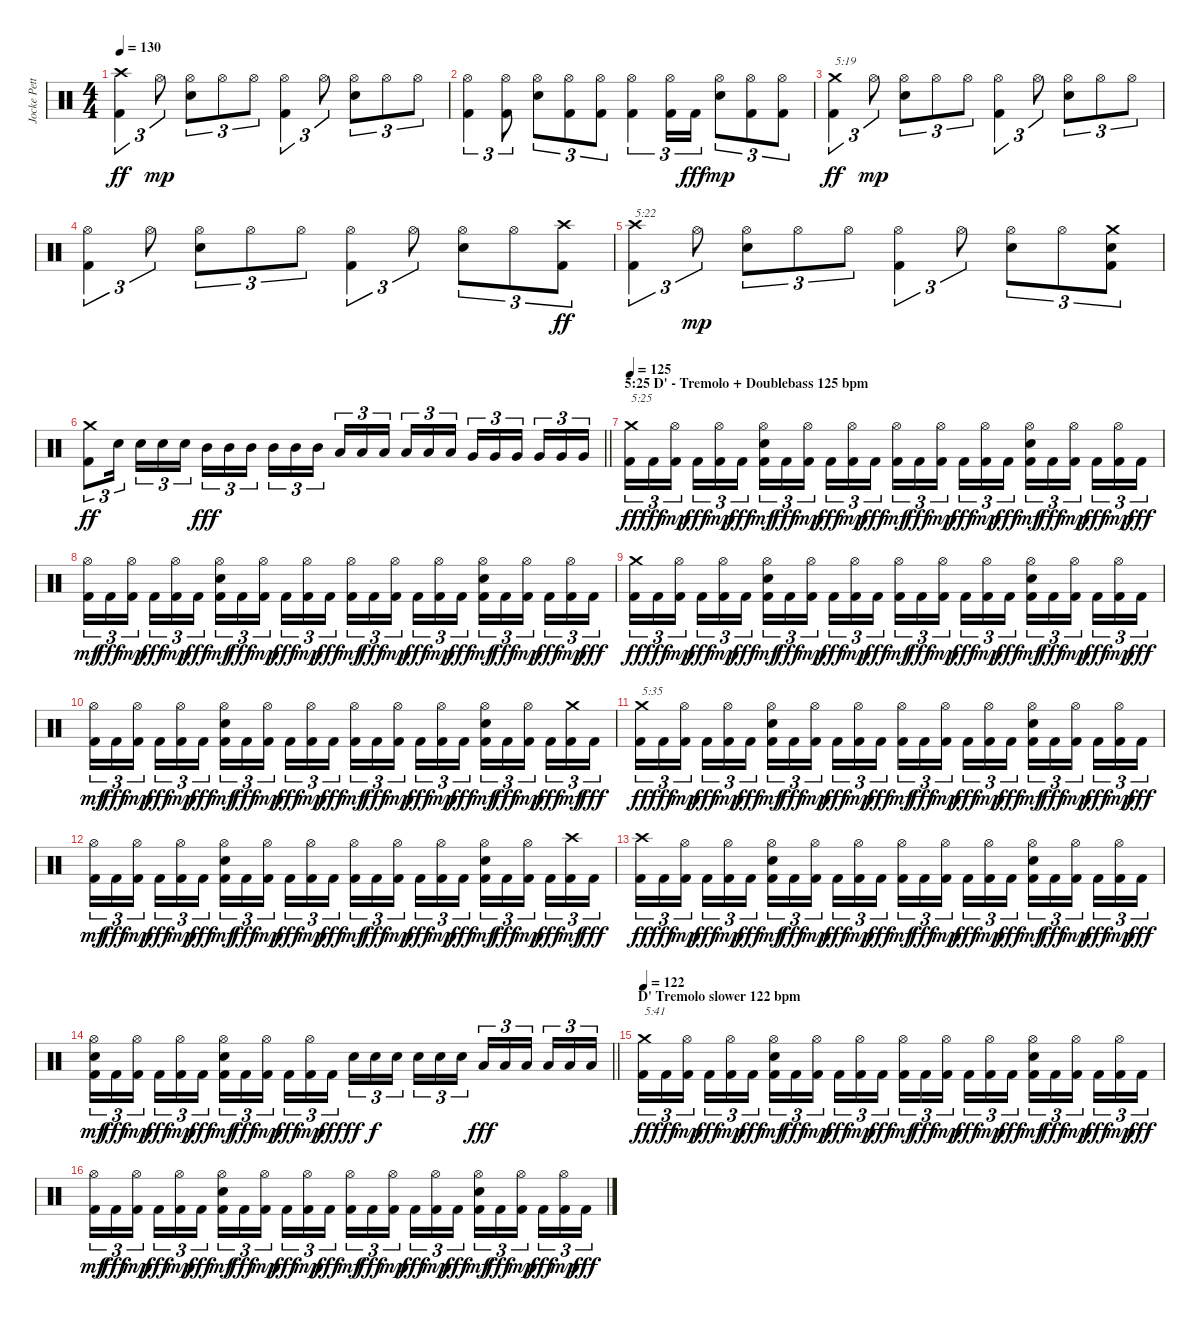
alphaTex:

\track ("Jocke Pettersson" "Jocke Pett") {instrument percussion}
\staff {score}
\articulation defaults
\ts (4 4)
\tempo 130
\clef neutral
\ks c
("Kick (hit) 2" "Crash high (hit)").4{tu (3 2) dy ff} "Hi-Hat (open)".8{tu (3 2) dy mp} ("Electric Snare (hit)" "Hi-Hat (open)").8{tu (3 2)} "Hi-Hat (open)".8{tu (3 2)} "Hi-Hat (open)".8{tu (3 2)} ("Kick (hit) 2" "Hi-Hat (open)").4{tu (3 2)} "Hi-Hat (open)".8{tu (3 2)} ("Electric Snare (hit)" "Hi-Hat (open)").8{tu (3 2)} "Hi-Hat (open)".8{tu (3 2)} "Hi-Hat (open)".8{tu (3 2)} |
("Kick (hit) 2" "Hi-Hat (open)").4{tu (3 2)} ("Kick (hit) 2" "Hi-Hat (open)").8{tu (3 2)} ("Electric Snare (hit)" "Hi-Hat (open)").8{tu (3 2)} ("Kick (hit) 2" "Hi-Hat (open)").8{tu (3 2)} ("Kick (hit) 2" "Hi-Hat (open)").8{tu (3 2)} ("Kick (hit) 2" "Hi-Hat (open)").4{tu (3 2)} ("Kick (hit) 2" "Hi-Hat (open)").16{tu (3 2)} "Kick (hit) 2".16{tu (3 2) dy fff} ("Electric Snare (hit)" "Hi-Hat (open)").8{tu (3 2) dy mp} ("Kick (hit) 2" "Hi-Hat (open)").8{tu (3 2)} ("Kick (hit) 2" "Hi-Hat (open)").8{tu (3 2)} |
("Kick (hit) 2" "Crash medium (hit)").4{tu (3 2) txt "5:19" dy ff} "Hi-Hat (open)".8{tu (3 2) dy mp} ("Electric Snare (hit)" "Hi-Hat (open)").8{tu (3 2)} "Hi-Hat (open)".8{tu (3 2)} "Hi-Hat (open)".8{tu (3 2)} ("Kick (hit) 2" "Hi-Hat (open)").4{tu (3 2)} "Hi-Hat (open)".8{tu (3 2)} ("Electric Snare (hit)" "Hi-Hat (open)").8{tu (3 2)} "Hi-Hat (open)".8{tu (3 2)} "Hi-Hat (open)".8{tu (3 2)} |
("Kick (hit) 2" "Hi-Hat (open)").4{tu (3 2)} "Hi-Hat (open)".8{tu (3 2)} ("Electric Snare (hit)" "Hi-Hat (open)").8{tu (3 2)} "Hi-Hat (open)".8{tu (3 2)} "Hi-Hat (open)".8{tu (3 2)} ("Kick (hit) 2" "Hi-Hat (open)").4{tu (3 2)} "Hi-Hat (open)".8{tu (3 2)} ("Electric Snare (hit)" "Hi-Hat (open)").8{tu (3 2)} "Hi-Hat (open)".8{tu (3 2)} ("Kick (hit) 2" "Crash high (hit)").8{tu (3 2) dy ff} |
("Kick (hit) 2" "Crash high (hit)").4{tu (3 2) txt "5:22"} "Hi-Hat (open)".8{tu (3 2) dy mp} ("Electric Snare (hit)" "Hi-Hat (open)").8{tu (3 2)} "Hi-Hat (open)".8{tu (3 2)} "Hi-Hat (open)".8{tu (3 2)} ("Kick (hit) 2" "Hi-Hat (open)").4{tu (3 2)} "Hi-Hat (open)".8{tu (3 2)} ("Electric Snare (hit)" "Hi-Hat (open)").8{tu (3 2)} "Hi-Hat (open)".8{tu (3 2)} ("Kick (hit) 2" "Electric Snare (hit)" "Crash medium (hit)").8{tu (3 2)} |
\barLineRight lightlight
("Kick (hit) 2" "Crash medium (hit)").8{tu (3 2) dy ff} "Electric Snare (hit)".16{tu (3 2) beam splitsecondary} "Electric Snare (hit)".16{tu (3 2)} "Electric Snare (hit)".16{tu (3 2)} "Electric Snare (hit)".16{tu (3 2)} "Mid Tom (hit)".16{tu (3 2) dy fff} "Mid Tom (hit)".16{tu (3 2)} "Mid Tom (hit)".16{tu (3 2) beam splitsecondary} "Mid Tom (hit)".16{tu (3 2)} "Mid Tom (hit)".16{tu (3 2)} "Mid Tom (hit)".16{tu (3 2)} "Low Tom (hit)".16{tu (3 2)} "Low Tom (hit)".16{tu (3 2)} "Low Tom (hit)".16{tu (3 2) beam splitsecondary} "Low Tom (hit)".16{tu (3 2)} "Low Tom (hit)".16{tu (3 2)} "Low Tom (hit)".16{tu (3 2)} "Very Low Tom (hit)".16{tu (3 2)} "Very Low Tom (hit)".16{tu (3 2)} "Very Low Tom (hit)".16{tu (3 2) beam splitsecondary} "Very Low Tom (hit)".16{tu (3 2)} "Very Low Tom (hit)".16{tu (3 2)} "Very Low Tom (hit)".16{tu (3 2)} |
\section ("" "5:25 D' - Tremolo + Doublebass 125 bpm")
\tempo 125
("Kick (hit) 2" "Crash medium (hit)").16{tu (3 2) txt "5:25" dy ff} "Kick (hit) 2".16{tu (3 2) dy fff} ("Kick (hit) 2" "Hi-Hat (open)").16{tu (3 2) dy mp beam splitsecondary} "Kick (hit) 2".16{tu (3 2) dy fff} ("Kick (hit) 2" "Hi-Hat (open)").16{tu (3 2) dy mp} "Kick (hit) 2".16{tu (3 2) dy fff} ("Kick (hit) 2" "Electric Snare (hit)" "Hi-Hat (open)").16{tu (3 2) dy mf} "Kick (hit) 2".16{tu (3 2) dy fff} ("Kick (hit) 2" "Hi-Hat (open)").16{tu (3 2) dy mp beam splitsecondary} "Kick (hit) 2".16{tu (3 2) dy fff} ("Kick (hit) 2" "Hi-Hat (open)").16{tu (3 2) dy mp} "Kick (hit) 2".16{tu (3 2) dy fff} ("Kick (hit) 2" "Hi-Hat (open)").16{tu (3 2) dy mf} "Kick (hit) 2".16{tu (3 2) dy fff} ("Kick (hit) 2" "Hi-Hat (open)").16{tu (3 2) dy mp beam splitsecondary} "Kick (hit) 2".16{tu (3 2) dy fff} ("Kick (hit) 2" "Hi-Hat (open)").16{tu (3 2) dy mp} "Kick (hit) 2".16{tu (3 2) dy fff} ("Kick (hit) 2" "Electric Snare (hit)" "Hi-Hat (open)").16{tu (3 2) dy mf} "Kick (hit) 2".16{tu (3 2) dy fff} ("Kick (hit) 2" "Hi-Hat (open)").16{tu (3 2) dy mp beam splitsecondary} "Kick (hit) 2".16{tu (3 2) dy fff} ("Kick (hit) 2" "Hi-Hat (open)").16{tu (3 2) dy mp} "Kick (hit) 2".16{tu (3 2) dy fff} |
("Kick (hit) 2" "Hi-Hat (open)").16{tu (3 2) dy mf} "Kick (hit) 2".16{tu (3 2) dy fff} ("Kick (hit) 2" "Hi-Hat (open)").16{tu (3 2) dy mp beam splitsecondary} "Kick (hit) 2".16{tu (3 2) dy fff} ("Kick (hit) 2" "Hi-Hat (open)").16{tu (3 2) dy mp} "Kick (hit) 2".16{tu (3 2) dy fff} ("Kick (hit) 2" "Electric Snare (hit)" "Hi-Hat (open)").16{tu (3 2) dy mf} "Kick (hit) 2".16{tu (3 2) dy fff} ("Kick (hit) 2" "Hi-Hat (open)").16{tu (3 2) dy mp beam splitsecondary} "Kick (hit) 2".16{tu (3 2) dy fff} ("Kick (hit) 2" "Hi-Hat (open)").16{tu (3 2) dy mp} "Kick (hit) 2".16{tu (3 2) dy fff} ("Kick (hit) 2" "Hi-Hat (open)").16{tu (3 2) dy mf} "Kick (hit) 2".16{tu (3 2) dy fff} ("Kick (hit) 2" "Hi-Hat (open)").16{tu (3 2) dy mp beam splitsecondary} "Kick (hit) 2".16{tu (3 2) dy fff} ("Kick (hit) 2" "Hi-Hat (open)").16{tu (3 2) dy mp} "Kick (hit) 2".16{tu (3 2) dy fff} ("Kick (hit) 2" "Electric Snare (hit)" "Hi-Hat (open)").16{tu (3 2) dy mf} "Kick (hit) 2".16{tu (3 2) dy fff} ("Kick (hit) 2" "Hi-Hat (open)").16{tu (3 2) dy mp beam splitsecondary} "Kick (hit) 2".16{tu (3 2) dy fff} ("Kick (hit) 2" "Hi-Hat (open)").16{tu (3 2) dy mp} "Kick (hit) 2".16{tu (3 2) dy fff} |
("Kick (hit) 2" "Crash medium (hit)").16{tu (3 2) dy ff} "Kick (hit) 2".16{tu (3 2) dy fff} ("Kick (hit) 2" "Hi-Hat (open)").16{tu (3 2) dy mp beam splitsecondary} "Kick (hit) 2".16{tu (3 2) dy fff} ("Kick (hit) 2" "Hi-Hat (open)").16{tu (3 2) dy mp} "Kick (hit) 2".16{tu (3 2) dy fff} ("Kick (hit) 2" "Electric Snare (hit)" "Hi-Hat (open)").16{tu (3 2) dy mf} "Kick (hit) 2".16{tu (3 2) dy fff} ("Kick (hit) 2" "Hi-Hat (open)").16{tu (3 2) dy mp beam splitsecondary} "Kick (hit) 2".16{tu (3 2) dy fff} ("Kick (hit) 2" "Hi-Hat (open)").16{tu (3 2) dy mp} "Kick (hit) 2".16{tu (3 2) dy fff} ("Kick (hit) 2" "Hi-Hat (open)").16{tu (3 2) dy mf} "Kick (hit) 2".16{tu (3 2) dy fff} ("Kick (hit) 2" "Hi-Hat (open)").16{tu (3 2) dy mp beam splitsecondary} "Kick (hit) 2".16{tu (3 2) dy fff} ("Kick (hit) 2" "Hi-Hat (open)").16{tu (3 2) dy mp} "Kick (hit) 2".16{tu (3 2) dy fff} ("Kick (hit) 2" "Electric Snare (hit)" "Hi-Hat (open)").16{tu (3 2) dy mf} "Kick (hit) 2".16{tu (3 2) dy fff} ("Kick (hit) 2" "Hi-Hat (open)").16{tu (3 2) dy mp beam splitsecondary} "Kick (hit) 2".16{tu (3 2) dy fff} ("Kick (hit) 2" "Hi-Hat (open)").16{tu (3 2) dy mp} "Kick (hit) 2".16{tu (3 2) dy fff} |
("Kick (hit) 2" "Hi-Hat (open)").16{tu (3 2) dy mf} "Kick (hit) 2".16{tu (3 2) dy fff} ("Kick (hit) 2" "Hi-Hat (open)").16{tu (3 2) dy mp beam splitsecondary} "Kick (hit) 2".16{tu (3 2) dy fff} ("Kick (hit) 2" "Hi-Hat (open)").16{tu (3 2) dy mp} "Kick (hit) 2".16{tu (3 2) dy fff} ("Kick (hit) 2" "Electric Snare (hit)" "Hi-Hat (open)").16{tu (3 2) dy mf} "Kick (hit) 2".16{tu (3 2) dy fff} ("Kick (hit) 2" "Hi-Hat (open)").16{tu (3 2) dy mp beam splitsecondary} "Kick (hit) 2".16{tu (3 2) dy fff} ("Kick (hit) 2" "Hi-Hat (open)").16{tu (3 2) dy mp} "Kick (hit) 2".16{tu (3 2) dy fff} ("Kick (hit) 2" "Hi-Hat (open)").16{tu (3 2) dy mf} "Kick (hit) 2".16{tu (3 2) dy fff} ("Kick (hit) 2" "Hi-Hat (open)").16{tu (3 2) dy mp beam splitsecondary} "Kick (hit) 2".16{tu (3 2) dy fff} ("Kick (hit) 2" "Hi-Hat (open)").16{tu (3 2) dy mp} "Kick (hit) 2".16{tu (3 2) dy fff} ("Kick (hit) 2" "Electric Snare (hit)" "Hi-Hat (open)").16{tu (3 2) dy mf} "Kick (hit) 2".16{tu (3 2) dy fff} ("Kick (hit) 2" "Hi-Hat (open)").16{tu (3 2) dy mp beam splitsecondary} "Kick (hit) 2".16{tu (3 2) dy fff} ("Kick (hit) 2" "Crash medium (hit)").16{tu (3 2) dy mf} "Kick (hit) 2".16{tu (3 2) dy fff} |
("Kick (hit) 2" "Crash medium (hit)").16{tu (3 2) txt "5:35" dy ff} "Kick (hit) 2".16{tu (3 2) dy fff} ("Kick (hit) 2" "Hi-Hat (open)").16{tu (3 2) dy mp beam splitsecondary} "Kick (hit) 2".16{tu (3 2) dy fff} ("Kick (hit) 2" "Hi-Hat (open)").16{tu (3 2) dy mp} "Kick (hit) 2".16{tu (3 2) dy fff} ("Kick (hit) 2" "Electric Snare (hit)" "Hi-Hat (open)").16{tu (3 2) dy mf} "Kick (hit) 2".16{tu (3 2) dy fff} ("Kick (hit) 2" "Hi-Hat (open)").16{tu (3 2) dy mp beam splitsecondary} "Kick (hit) 2".16{tu (3 2) dy fff} ("Kick (hit) 2" "Hi-Hat (open)").16{tu (3 2) dy mp} "Kick (hit) 2".16{tu (3 2) dy fff} ("Kick (hit) 2" "Hi-Hat (open)").16{tu (3 2) dy mf} "Kick (hit) 2".16{tu (3 2) dy fff} ("Kick (hit) 2" "Hi-Hat (open)").16{tu (3 2) dy mp beam splitsecondary} "Kick (hit) 2".16{tu (3 2) dy fff} ("Kick (hit) 2" "Hi-Hat (open)").16{tu (3 2) dy mp} "Kick (hit) 2".16{tu (3 2) dy fff} ("Kick (hit) 2" "Electric Snare (hit)" "Hi-Hat (open)").16{tu (3 2) dy mf} "Kick (hit) 2".16{tu (3 2) dy fff} ("Kick (hit) 2" "Hi-Hat (open)").16{tu (3 2) dy mp beam splitsecondary} "Kick (hit) 2".16{tu (3 2) dy fff} ("Kick (hit) 2" "Hi-Hat (open)").16{tu (3 2) dy mp} "Kick (hit) 2".16{tu (3 2) dy fff} |
("Kick (hit) 2" "Hi-Hat (open)").16{tu (3 2) dy mf} "Kick (hit) 2".16{tu (3 2) dy fff} ("Kick (hit) 2" "Hi-Hat (open)").16{tu (3 2) dy mp beam splitsecondary} "Kick (hit) 2".16{tu (3 2) dy fff} ("Kick (hit) 2" "Hi-Hat (open)").16{tu (3 2) dy mp} "Kick (hit) 2".16{tu (3 2) dy fff} ("Kick (hit) 2" "Electric Snare (hit)" "Hi-Hat (open)").16{tu (3 2) dy mf} "Kick (hit) 2".16{tu (3 2) dy fff} ("Kick (hit) 2" "Hi-Hat (open)").16{tu (3 2) dy mp beam splitsecondary} "Kick (hit) 2".16{tu (3 2) dy fff} ("Kick (hit) 2" "Hi-Hat (open)").16{tu (3 2) dy mp} "Kick (hit) 2".16{tu (3 2) dy fff} ("Kick (hit) 2" "Hi-Hat (open)").16{tu (3 2) dy mf} "Kick (hit) 2".16{tu (3 2) dy fff} ("Kick (hit) 2" "Hi-Hat (open)").16{tu (3 2) dy mp beam splitsecondary} "Kick (hit) 2".16{tu (3 2) dy fff} ("Kick (hit) 2" "Hi-Hat (open)").16{tu (3 2) dy mp} "Kick (hit) 2".16{tu (3 2) dy fff} ("Kick (hit) 2" "Electric Snare (hit)" "Hi-Hat (open)").16{tu (3 2) dy mf} "Kick (hit) 2".16{tu (3 2) dy fff} ("Kick (hit) 2" "Hi-Hat (open)").16{tu (3 2) dy mp beam splitsecondary} "Kick (hit) 2".16{tu (3 2) dy fff} ("Kick (hit) 2" "Crash high (hit)").16{tu (3 2) dy mf} "Kick (hit) 2".16{tu (3 2) dy fff} |
("Kick (hit) 2" "Crash high (hit)").16{tu (3 2) dy ff} "Kick (hit) 2".16{tu (3 2) dy fff} ("Kick (hit) 2" "Hi-Hat (open)").16{tu (3 2) dy mp beam splitsecondary} "Kick (hit) 2".16{tu (3 2) dy fff} ("Kick (hit) 2" "Hi-Hat (open)").16{tu (3 2) dy mp} "Kick (hit) 2".16{tu (3 2) dy fff} ("Kick (hit) 2" "Electric Snare (hit)" "Hi-Hat (open)").16{tu (3 2) dy mf} "Kick (hit) 2".16{tu (3 2) dy fff} ("Kick (hit) 2" "Hi-Hat (open)").16{tu (3 2) dy mp beam splitsecondary} "Kick (hit) 2".16{tu (3 2) dy fff} ("Kick (hit) 2" "Hi-Hat (open)").16{tu (3 2) dy mp} "Kick (hit) 2".16{tu (3 2) dy fff} ("Kick (hit) 2" "Hi-Hat (open)").16{tu (3 2) dy mf} "Kick (hit) 2".16{tu (3 2) dy fff} ("Kick (hit) 2" "Hi-Hat (open)").16{tu (3 2) dy mp beam splitsecondary} "Kick (hit) 2".16{tu (3 2) dy fff} ("Kick (hit) 2" "Hi-Hat (open)").16{tu (3 2) dy mp} "Kick (hit) 2".16{tu (3 2) dy fff} ("Kick (hit) 2" "Electric Snare (hit)" "Hi-Hat (open)").16{tu (3 2) dy mf} "Kick (hit) 2".16{tu (3 2) dy fff} ("Kick (hit) 2" "Hi-Hat (open)").16{tu (3 2) dy mp beam splitsecondary} "Kick (hit) 2".16{tu (3 2) dy fff} ("Kick (hit) 2" "Hi-Hat (open)").16{tu (3 2) dy mp} "Kick (hit) 2".16{tu (3 2) dy fff} |
\barLineRight lightlight
("Kick (hit) 2" "Electric Snare (hit)" "Hi-Hat (open)").16{tu (3 2) dy mf} "Kick (hit) 2".16{tu (3 2) dy fff} ("Kick (hit) 2" "Hi-Hat (open)").16{tu (3 2) dy mp beam splitsecondary} "Kick (hit) 2".16{tu (3 2) dy fff} ("Kick (hit) 2" "Hi-Hat (open)").16{tu (3 2) dy mp} "Kick (hit) 2".16{tu (3 2) dy fff} ("Kick (hit) 2" "Electric Snare (hit)" "Hi-Hat (open)").16{tu (3 2) dy mf} "Kick (hit) 2".16{tu (3 2) dy fff} ("Kick (hit) 2" "Hi-Hat (open)").16{tu (3 2) dy mp beam splitsecondary} "Kick (hit) 2".16{tu (3 2) dy fff} ("Kick (hit) 2" "Hi-Hat (open)").16{tu (3 2) dy mp} "Kick (hit) 2".16{tu (3 2) dy fff} "Electric Snare (hit)".16{tu (3 2) dy ff} "Electric Snare (hit)".16{tu (3 2) dy f} "Electric Snare (hit)".16{tu (3 2) beam splitsecondary} "Electric Snare (hit)".16{tu (3 2)} "Electric Snare (hit)".16{tu (3 2)} "Electric Snare (hit)".16{tu (3 2)} "Low Tom (hit)".16{tu (3 2) dy fff} "Low Tom (hit)".16{tu (3 2)} "Low Tom (hit)".16{tu (3 2) beam splitsecondary} "Low Tom (hit)".16{tu (3 2)} "Low Tom (hit)".16{tu (3 2)} "Low Tom (hit)".16{tu (3 2)} |
\section ("" "D' Tremolo slower 122 bpm")
\tempo 122
("Kick (hit) 2" "Crash medium (hit)").16{tu (3 2) txt "5:41" dy ff} "Kick (hit) 2".16{tu (3 2) dy fff} ("Kick (hit) 2" "Hi-Hat (open)").16{tu (3 2) dy mp beam splitsecondary} "Kick (hit) 2".16{tu (3 2) dy fff} ("Kick (hit) 2" "Hi-Hat (open)").16{tu (3 2) dy mp} "Kick (hit) 2".16{tu (3 2) dy fff} ("Kick (hit) 2" "Electric Snare (hit)" "Hi-Hat (open)").16{tu (3 2) dy mf} "Kick (hit) 2".16{tu (3 2) dy fff} ("Kick (hit) 2" "Hi-Hat (open)").16{tu (3 2) dy mp beam splitsecondary} "Kick (hit) 2".16{tu (3 2) dy fff} ("Kick (hit) 2" "Hi-Hat (open)").16{tu (3 2) dy mp} "Kick (hit) 2".16{tu (3 2) dy fff} ("Kick (hit) 2" "Hi-Hat (open)").16{tu (3 2) dy mf} "Kick (hit) 2".16{tu (3 2) dy fff} ("Kick (hit) 2" "Hi-Hat (open)").16{tu (3 2) dy mp beam splitsecondary} "Kick (hit) 2".16{tu (3 2) dy fff} ("Kick (hit) 2" "Hi-Hat (open)").16{tu (3 2) dy mp} "Kick (hit) 2".16{tu (3 2) dy fff} ("Kick (hit) 2" "Electric Snare (hit)" "Hi-Hat (open)").16{tu (3 2) dy mf} "Kick (hit) 2".16{tu (3 2) dy fff} ("Kick (hit) 2" "Hi-Hat (open)").16{tu (3 2) dy mp beam splitsecondary} "Kick (hit) 2".16{tu (3 2) dy fff} ("Kick (hit) 2" "Hi-Hat (open)").16{tu (3 2) dy mp} "Kick (hit) 2".16{tu (3 2) dy fff} |
("Kick (hit) 2" "Hi-Hat (open)").16{tu (3 2) dy mf} "Kick (hit) 2".16{tu (3 2) dy fff} ("Kick (hit) 2" "Hi-Hat (open)").16{tu (3 2) dy mp beam splitsecondary} "Kick (hit) 2".16{tu (3 2) dy fff} ("Kick (hit) 2" "Hi-Hat (open)").16{tu (3 2) dy mp} "Kick (hit) 2".16{tu (3 2) dy fff} ("Kick (hit) 2" "Electric Snare (hit)" "Hi-Hat (open)").16{tu (3 2) dy mf} "Kick (hit) 2".16{tu (3 2) dy fff} ("Kick (hit) 2" "Hi-Hat (open)").16{tu (3 2) dy mp beam splitsecondary} "Kick (hit) 2".16{tu (3 2) dy fff} ("Kick (hit) 2" "Hi-Hat (open)").16{tu (3 2) dy mp} "Kick (hit) 2".16{tu (3 2) dy fff} ("Kick (hit) 2" "Hi-Hat (open)").16{tu (3 2) dy mf} "Kick (hit) 2".16{tu (3 2) dy fff} ("Kick (hit) 2" "Hi-Hat (open)").16{tu (3 2) dy mp beam splitsecondary} "Kick (hit) 2".16{tu (3 2) dy fff} ("Kick (hit) 2" "Hi-Hat (open)").16{tu (3 2) dy mp} "Kick (hit) 2".16{tu (3 2) dy fff} ("Kick (hit) 2" "Electric Snare (hit)" "Hi-Hat (open)").16{tu (3 2) dy mf} "Kick (hit) 2".16{tu (3 2) dy fff} ("Kick (hit) 2" "Hi-Hat (open)").16{tu (3 2) dy mp beam splitsecondary} "Kick (hit) 2".16{tu (3 2) dy fff} ("Kick (hit) 2" "Hi-Hat (open)").16{tu (3 2) dy mp} "Kick (hit) 2".16{tu (3 2) dy fff}
